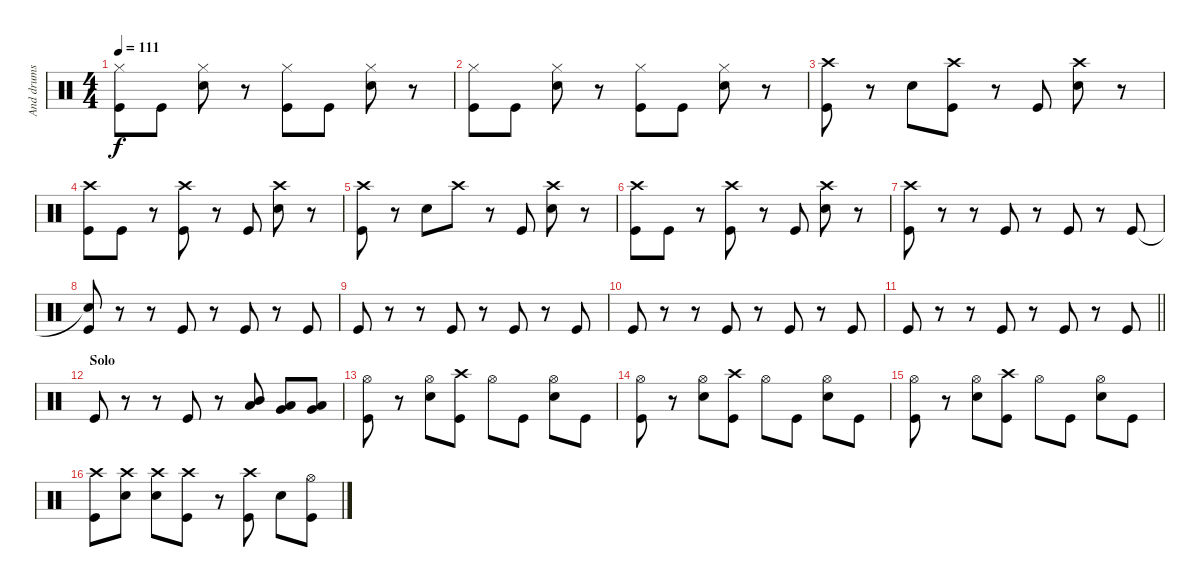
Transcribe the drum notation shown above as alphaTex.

\track ("And drums" "And drums") {instrument percussion}
\staff {score}
\articulation defaults
\ts (4 4)
\tempo 111
\clef neutral
\ks c
("Hi-Hat (closed)" "Kick (hit)").8{dy f} "Kick (hit)".8 ("Hi-Hat (closed)" "Snare (hit) 2").8 r.8 ("Hi-Hat (closed)" "Kick (hit)").8 "Kick (hit)".8 ("Hi-Hat (closed)" "Snare (hit) 2").8 r.8 |
("Hi-Hat (closed)" "Kick (hit)").8 "Kick (hit)".8 ("Hi-Hat (closed)" "Snare (hit) 2").8 r.8 ("Hi-Hat (closed)" "Kick (hit)").8 "Kick (hit)".8 ("Hi-Hat (closed)" "Snare (hit) 2").8 r.8 |
("Crash high (hit)" "Kick (hit)").8 r.8 "Snare (hit) 2".8 ("Crash high (hit)" "Kick (hit)").8 r.8 "Kick (hit)".8 ("Crash high (hit)" "Snare (hit) 2").8 r.8 |
("Crash high (hit)" "Kick (hit)").8 "Kick (hit)".8 r.8 ("Crash high (hit)" "Kick (hit)").8 r.8 "Kick (hit)".8 ("Crash high (hit)" "Snare (hit) 2").8 r.8 |
("Crash high (hit)" "Kick (hit)").8 r.8 "Snare (hit) 2".8 "Crash high (hit)".8 r.8 "Kick (hit)".8 ("Crash high (hit)" "Snare (hit) 2").8 r.8 |
("Crash high (hit)" "Kick (hit)").8 "Kick (hit)".8 r.8 ("Crash high (hit)" "Kick (hit)").8 r.8 "Kick (hit)".8 ("Crash high (hit)" "Snare (hit) 2").8 r.8 |
("Crash high (hit)" "Kick (hit)").8 r.8 r.8 "Kick (hit)".8 r.8 "Kick (hit)".8 r.8 "Kick (hit)".8 |
("Snare (hit)"{t} "Kick (hit)").8 r.8 r.8 "Kick (hit)".8 r.8 "Kick (hit)".8 r.8 "Kick (hit)".8 |
"Kick (hit)".8 r.8 r.8 "Kick (hit)".8 r.8 "Kick (hit)".8 r.8 "Kick (hit)".8 |
"Kick (hit)".8 r.8 r.8 "Kick (hit)".8 r.8 "Kick (hit)".8 r.8 "Kick (hit)".8 |
\barLineRight lightlight "Kick (hit)".8
r.8 r.8 "Kick (hit)".8 r.8 "Kick (hit)".8 r.8 "Kick (hit)".8 |
\section ("" "Solo")
"Kick (hit)".8 r.8 r.8 "Kick (hit)".8 r.8 ("Mid Tom (hit)" "Low Tom (hit)").8 ("Low Tom (hit)" "Very Low Tom (hit)").8 ("Very Low Tom (hit)" "Low Floor Tom (hit)").8 |
("Hi-Hat (open)" "Kick (hit)").8 r.8 ("Hi-Hat (open)" "Snare (hit) 2").8 ("Crash high (hit)" "Kick (hit)").8 "Hi-Hat (open)".8 "Kick (hit)".8 ("Hi-Hat (open)" "Snare (hit) 2").8 "Kick (hit)".8 |
("Hi-Hat (open)" "Kick (hit)").8 r.8 ("Hi-Hat (open)" "Snare (hit) 2").8 ("Crash high (hit)" "Kick (hit)").8 "Hi-Hat (open)".8 "Kick (hit)".8 ("Hi-Hat (open)" "Snare (hit) 2").8 "Kick (hit)".8 |
("Hi-Hat (open)" "Kick (hit)").8 r.8 ("Hi-Hat (open)" "Snare (hit) 2").8 ("Crash high (hit)" "Kick (hit)").8 "Hi-Hat (open)".8 "Kick (hit)".8 ("Hi-Hat (open)" "Snare (hit) 2").8 "Kick (hit)".8 |
("Crash high (hit)" "Kick (hit)").8 ("Crash high (hit)" "Snare (hit) 2").8 ("Crash high (hit)" "Snare (hit) 2").8 ("Crash high (hit)" "Kick (hit)").8 r.8 ("Crash high (hit)" "Kick (hit)").8 "Snare (hit) 2".8 ("Hi-Hat (open)" "Kick (hit)").8
